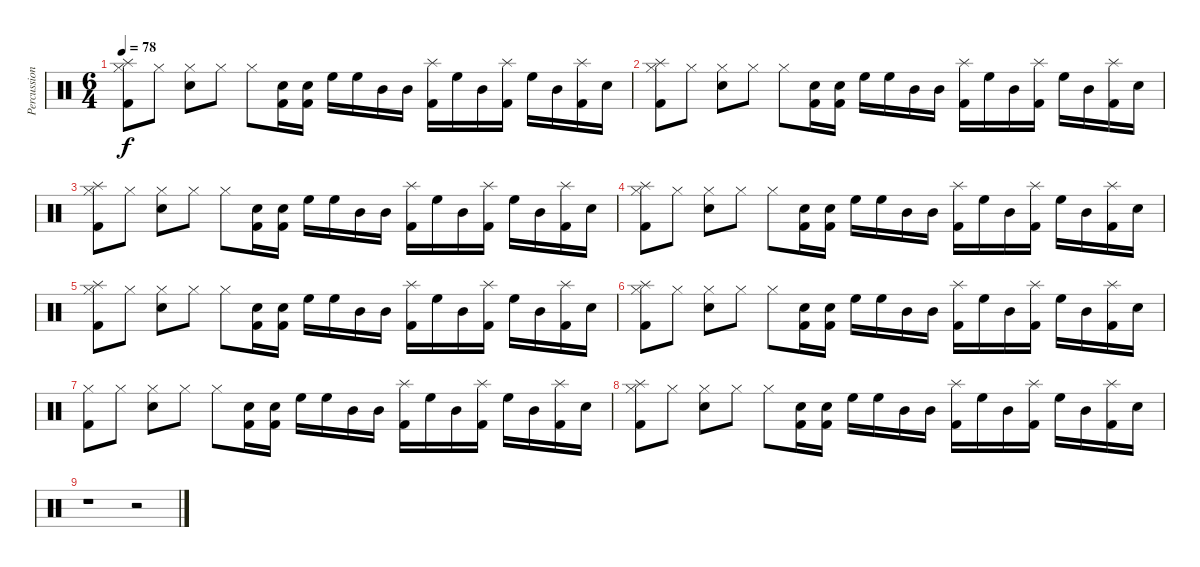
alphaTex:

\track ("Percussion" "Percussion") {instrument percussion}
\staff {score}
\articulation defaults
\ts (6 4)
\tempo 78
\clef neutral
\ks c
("Hi-Hat (closed)" "Kick (hit) 2" "Splash (hit)").8{dy f} "Hi-Hat (closed)".8 ("Hi-Hat (closed)" "Snare (hit) 2").8 "Hi-Hat (closed)".8 "Hi-Hat (closed)".8 ("Kick (hit) 2" "Snare (hit) 2").16 ("Snare (hit) 2" "Kick (hit) 2").16 "High Floor Tom (hit)".16 "High Floor Tom (hit)".16 "Mid Tom (hit)".16 "Mid Tom (hit)".16 ("Splash (hit)" "Kick (hit) 2").16 "High Floor Tom (hit)".16 "Mid Tom (hit)".16 ("Splash (hit)" "Kick (hit) 2").16 "High Floor Tom (hit)".16 "Mid Tom (hit)".16 ("Splash (hit)" "Kick (hit) 2").16 "Snare (hit) 2".16 |
("Hi-Hat (closed)" "Kick (hit) 2" "Splash (hit)").8 "Hi-Hat (closed)".8 ("Hi-Hat (closed)" "Snare (hit) 2").8 "Hi-Hat (closed)".8 "Hi-Hat (closed)".8 ("Kick (hit) 2" "Snare (hit) 2").16 ("Snare (hit) 2" "Kick (hit) 2").16 "High Floor Tom (hit)".16 "High Floor Tom (hit)".16 "Mid Tom (hit)".16 "Mid Tom (hit)".16 ("Splash (hit)" "Kick (hit) 2").16 "High Floor Tom (hit)".16 "Mid Tom (hit)".16 ("Splash (hit)" "Kick (hit) 2").16 "High Floor Tom (hit)".16 "Mid Tom (hit)".16 ("Splash (hit)" "Kick (hit) 2").16 "Snare (hit) 2".16 |
("Hi-Hat (closed)" "Kick (hit) 2" "Splash (hit)").8 "Hi-Hat (closed)".8 ("Hi-Hat (closed)" "Snare (hit) 2").8 "Hi-Hat (closed)".8 "Hi-Hat (closed)".8 ("Kick (hit) 2" "Snare (hit) 2").16 ("Snare (hit) 2" "Kick (hit) 2").16 "High Floor Tom (hit)".16 "High Floor Tom (hit)".16 "Mid Tom (hit)".16 "Mid Tom (hit)".16 ("Splash (hit)" "Kick (hit) 2").16 "High Floor Tom (hit)".16 "Mid Tom (hit)".16 ("Splash (hit)" "Kick (hit) 2").16 "High Floor Tom (hit)".16 "Mid Tom (hit)".16 ("Splash (hit)" "Kick (hit) 2").16 "Snare (hit) 2".16 |
("Hi-Hat (closed)" "Kick (hit) 2" "Splash (hit)").8 "Hi-Hat (closed)".8 ("Hi-Hat (closed)" "Snare (hit) 2").8 "Hi-Hat (closed)".8 "Hi-Hat (closed)".8 ("Kick (hit) 2" "Snare (hit) 2").16 ("Snare (hit) 2" "Kick (hit) 2").16 "High Floor Tom (hit)".16 "High Floor Tom (hit)".16 "Mid Tom (hit)".16 "Mid Tom (hit)".16 ("Splash (hit)" "Kick (hit) 2").16 "High Floor Tom (hit)".16 "Mid Tom (hit)".16 ("Splash (hit)" "Kick (hit) 2").16 "High Floor Tom (hit)".16 "Mid Tom (hit)".16 ("Splash (hit)" "Kick (hit) 2").16 "Snare (hit) 2".16 |
("Hi-Hat (closed)" "Kick (hit) 2" "Splash (hit)").8 "Hi-Hat (closed)".8 ("Hi-Hat (closed)" "Snare (hit) 2").8 "Hi-Hat (closed)".8 "Hi-Hat (closed)".8 ("Kick (hit) 2" "Snare (hit) 2").16 ("Snare (hit) 2" "Kick (hit) 2").16 "High Floor Tom (hit)".16 "High Floor Tom (hit)".16 "Mid Tom (hit)".16 "Mid Tom (hit)".16 ("Splash (hit)" "Kick (hit) 2").16 "High Floor Tom (hit)".16 "Mid Tom (hit)".16 ("Splash (hit)" "Kick (hit) 2").16 "High Floor Tom (hit)".16 "Mid Tom (hit)".16 ("Splash (hit)" "Kick (hit) 2").16 "Snare (hit) 2".16 |
("Hi-Hat (closed)" "Kick (hit) 2" "Splash (hit)").8 "Hi-Hat (closed)".8 ("Hi-Hat (closed)" "Snare (hit) 2").8 "Hi-Hat (closed)".8 "Hi-Hat (closed)".8 ("Kick (hit) 2" "Snare (hit) 2").16 ("Snare (hit) 2" "Kick (hit) 2").16 "High Floor Tom (hit)".16 "High Floor Tom (hit)".16 "Mid Tom (hit)".16 "Mid Tom (hit)".16 ("Splash (hit)" "Kick (hit) 2").16 "High Floor Tom (hit)".16 "Mid Tom (hit)".16 ("Splash (hit)" "Kick (hit) 2").16 "High Floor Tom (hit)".16 "Mid Tom (hit)".16 ("Splash (hit)" "Kick (hit) 2").16 "Snare (hit) 2".16 |
("Hi-Hat (closed)" "Kick (hit) 2").8 "Hi-Hat (closed)".8 ("Hi-Hat (closed)" "Snare (hit) 2").8 "Hi-Hat (closed)".8 "Hi-Hat (closed)".8 ("Kick (hit) 2" "Snare (hit) 2").16 ("Snare (hit) 2" "Kick (hit) 2").16 "High Floor Tom (hit)".16 "High Floor Tom (hit)".16 "Mid Tom (hit)".16 "Mid Tom (hit)".16 ("Splash (hit)" "Kick (hit) 2").16 "High Floor Tom (hit)".16 "Mid Tom (hit)".16 ("Splash (hit)" "Kick (hit) 2").16 "High Floor Tom (hit)".16 "Mid Tom (hit)".16 ("Splash (hit)" "Kick (hit) 2").16 "Snare (hit) 2".16 |
("Hi-Hat (closed)" "Kick (hit) 2" "Splash (hit)").8 "Hi-Hat (closed)".8 ("Hi-Hat (closed)" "Snare (hit) 2").8 "Hi-Hat (closed)".8 "Hi-Hat (closed)".8 ("Kick (hit) 2" "Snare (hit) 2").16 ("Snare (hit) 2" "Kick (hit) 2").16 "High Floor Tom (hit)".16 "High Floor Tom (hit)".16 "Mid Tom (hit)".16 "Mid Tom (hit)".16 ("Splash (hit)" "Kick (hit) 2").16 "High Floor Tom (hit)".16 "Mid Tom (hit)".16 ("Splash (hit)" "Kick (hit) 2").16 "High Floor Tom (hit)".16 "Mid Tom (hit)".16 ("Splash (hit)" "Kick (hit) 2").16 "Snare (hit) 2".16 |
r.1 r.2
